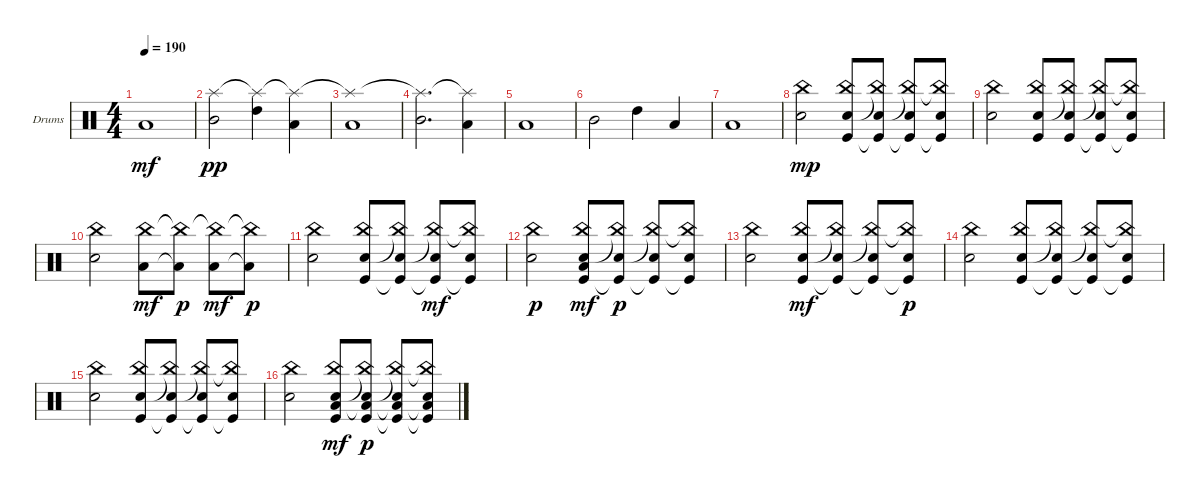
\defaultSystemsLayout 4
\bracketExtendMode groupsimilarinstruments
\firstSystemTrackNameOrientation horizontal
\otherSystemsTrackNameOrientation horizontal
\track ("Drumkit" "Drums") {instrument percussion}
\staff {score}
\articulation defaults
\ts (4 4)
\tempo 190
\clef neutral
\ks c "Low Tom (hit)".1{dy mf}
|
("Mid Tom (hit)" "Splash (hit)").2{dy pp} ("High Tom (hit)" "Splash (hit)"{t}).4 ("Low Tom (hit)" "Splash (hit)"{t}).4 |
("Low Tom (hit)" "Splash (hit)"{t}).1 |
("Mid Tom (hit)" "Splash (hit)"{t}).2{d} ("Low Tom (hit)" "Splash (hit)"{t}).4 |
"Low Tom (hit)".1 |
"Mid Tom (hit)".2 "High Tom (hit)".4 "Low Tom (hit)".4 |
"Low Tom (hit)".1 |
("Snare (hit) 2" "China (hit)").2{dy mp} ("Snare (hit) 2" "China (hit)" "Kick (hit)").8 ("China (hit)"{t} "Snare (hit) 2" "Kick (hit)"{t}).8 ("Snare (hit) 2" "China (hit)"{t} "Kick (hit)"{t}).8 ("Snare (hit) 2" "China (hit)"{t} "Kick (hit)"{t}).8 |
("Snare (hit) 2" "China (hit)").2 ("Snare (hit) 2" "China (hit)" "Kick (hit)").8 ("China (hit)"{t} "Snare (hit) 2" "Kick (hit)").8 ("Snare (hit) 2" "China (hit)"{t} "Kick (hit)"{t}).8 ("Snare (hit) 2" "China (hit)"{t} "Kick (hit)"{t}).8 |
("Snare (hit) 2" "China (hit)").2 ("China (hit)" "Low Tom (hit)").8{dy mf} ("China (hit)"{t} "Low Tom (hit)"{t}).8{dy p} ("China (hit)"{t} "Low Tom (hit)").8{dy mf} ("China (hit)"{t} "Low Tom (hit)"{t}).8{dy p} |
("Snare (hit) 2" "China (hit)").2 ("Snare (hit) 2" "China (hit)" "Kick (hit)").8 ("China (hit)"{t} "Snare (hit) 2" "Kick (hit)"{t}).8 ("Snare (hit) 2" "China (hit)"{t} "Kick (hit)"{t}).8{dy mf} ("Snare (hit) 2" "China (hit)"{t} "Kick (hit)"{t}).8 |
("Snare (hit) 2" "China (hit)").2{dy p} ("Snare (hit) 2" "China (hit)" "Kick (hit)" "Low Tom (hit)").8{dy mf} ("China (hit)"{t} "Snare (hit) 2" "Kick (hit)"{t}).8{dy p} ("Snare (hit) 2" "China (hit)"{t} "Kick (hit)"{t}).8 ("Snare (hit) 2" "China (hit)"{t} "Kick (hit)"{t}).8 |
("Snare (hit) 2" "China (hit)").2 ("Snare (hit) 2" "China (hit)" "Kick (hit)").8{dy mf} ("China (hit)"{t} "Snare (hit) 2" "Kick (hit)"{t}).8 ("Snare (hit) 2" "China (hit)"{t} "Kick (hit)"{t}).8 ("Snare (hit) 2" "China (hit)"{t} "Kick (hit)"{t}).8{dy p} |
("Snare (hit) 2" "China (hit)").2 ("Snare (hit) 2" "China (hit)" "Kick (hit)").8 ("China (hit)"{t} "Snare (hit) 2" "Kick (hit)"{t}).8 ("Snare (hit) 2" "China (hit)"{t} "Kick (hit)"{t}).8 ("Snare (hit) 2" "China (hit)"{t} "Kick (hit)"{t}).8 |
("Snare (hit) 2" "China (hit)").2 ("Snare (hit) 2" "China (hit)" "Kick (hit)").8 ("China (hit)"{t} "Snare (hit) 2" "Kick (hit)"{t}).8 ("Snare (hit) 2" "China (hit)"{t} "Kick (hit)"{t}).8 ("Snare (hit) 2" "China (hit)"{t} "Kick (hit)"{t}).8 |
("Snare (hit) 2" "China (hit)").2 ("Snare (hit) 2" "China (hit)" "Kick (hit)" "Low Tom (hit)").8{dy mf} ("China (hit)"{t} "Snare (hit) 2" "Kick (hit)" "Low Tom (hit)"{t}).8{dy p} ("Snare (hit) 2" "China (hit)"{t} "Kick (hit)"{t} "Low Tom (hit)"{t}).8 ("Snare (hit) 2" "China (hit)"{t} "Kick (hit)"{t} "Low Tom (hit)"{t}).8
